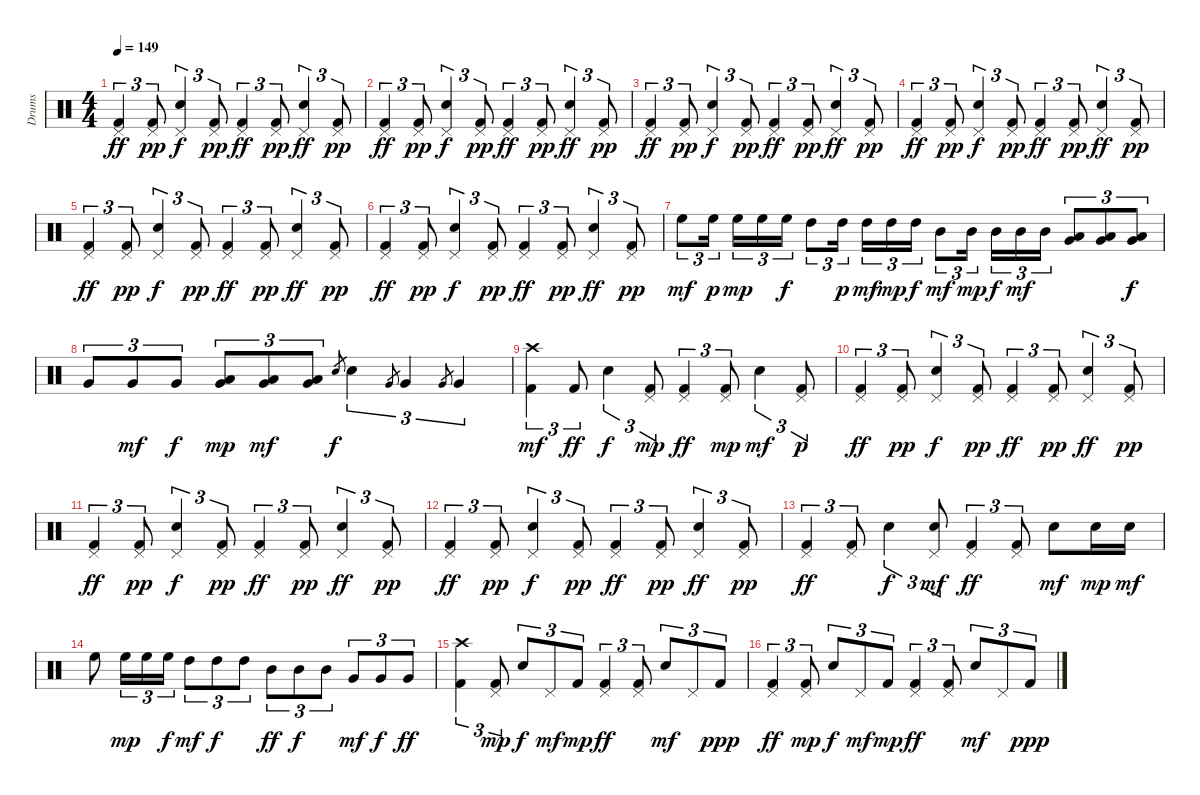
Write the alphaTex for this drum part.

\track ("Drums" "Drums") {instrument percussion}
\staff {score}
\articulation defaults
\ts (4 4)
\tempo 149
\clef neutral
\ks c
("Kick (hit) 2" "Pedal Hi-Hat (hit)").4{tu (3 2) dy ff} ("Kick (hit) 2" "Pedal Hi-Hat (hit)").8{tu (3 2) dy pp} ("Snare (hit) 2" "Pedal Hi-Hat (hit)").4{tu (3 2) dy f} ("Kick (hit) 2" "Pedal Hi-Hat (hit)").8{tu (3 2) dy pp} ("Kick (hit) 2" "Pedal Hi-Hat (hit)").4{tu (3 2) dy ff} ("Kick (hit) 2" "Pedal Hi-Hat (hit)").8{tu (3 2) dy pp} ("Snare (hit) 2" "Pedal Hi-Hat (hit)").4{tu (3 2) dy ff} ("Kick (hit) 2" "Pedal Hi-Hat (hit)").8{tu (3 2) dy pp} |
("Kick (hit) 2" "Pedal Hi-Hat (hit)").4{tu (3 2) dy ff} ("Kick (hit) 2" "Pedal Hi-Hat (hit)").8{tu (3 2) dy pp} ("Snare (hit) 2" "Pedal Hi-Hat (hit)").4{tu (3 2) dy f} ("Kick (hit) 2" "Pedal Hi-Hat (hit)").8{tu (3 2) dy pp} ("Kick (hit) 2" "Pedal Hi-Hat (hit)").4{tu (3 2) dy ff} ("Kick (hit) 2" "Pedal Hi-Hat (hit)").8{tu (3 2) dy pp} ("Snare (hit) 2" "Pedal Hi-Hat (hit)").4{tu (3 2) dy ff} ("Kick (hit) 2" "Pedal Hi-Hat (hit)").8{tu (3 2) dy pp} |
("Kick (hit) 2" "Pedal Hi-Hat (hit)").4{tu (3 2) dy ff} ("Kick (hit) 2" "Pedal Hi-Hat (hit)").8{tu (3 2) dy pp} ("Snare (hit) 2" "Pedal Hi-Hat (hit)").4{tu (3 2) dy f} ("Kick (hit) 2" "Pedal Hi-Hat (hit)").8{tu (3 2) dy pp} ("Kick (hit) 2" "Pedal Hi-Hat (hit)").4{tu (3 2) dy ff} ("Kick (hit) 2" "Pedal Hi-Hat (hit)").8{tu (3 2) dy pp} ("Snare (hit) 2" "Pedal Hi-Hat (hit)").4{tu (3 2) dy ff} ("Kick (hit) 2" "Pedal Hi-Hat (hit)").8{tu (3 2) dy pp} |
("Kick (hit) 2" "Pedal Hi-Hat (hit)").4{tu (3 2) dy ff} ("Kick (hit) 2" "Pedal Hi-Hat (hit)").8{tu (3 2) dy pp} ("Snare (hit) 2" "Pedal Hi-Hat (hit)").4{tu (3 2) dy f} ("Kick (hit) 2" "Pedal Hi-Hat (hit)").8{tu (3 2) dy pp} ("Kick (hit) 2" "Pedal Hi-Hat (hit)").4{tu (3 2) dy ff} ("Kick (hit) 2" "Pedal Hi-Hat (hit)").8{tu (3 2) dy pp} ("Snare (hit) 2" "Pedal Hi-Hat (hit)").4{tu (3 2) dy ff} ("Kick (hit) 2" "Pedal Hi-Hat (hit)").8{tu (3 2) dy pp} |
("Kick (hit) 2" "Pedal Hi-Hat (hit)").4{tu (3 2) dy ff} ("Kick (hit) 2" "Pedal Hi-Hat (hit)").8{tu (3 2) dy pp} ("Snare (hit) 2" "Pedal Hi-Hat (hit)").4{tu (3 2) dy f} ("Kick (hit) 2" "Pedal Hi-Hat (hit)").8{tu (3 2) dy pp} ("Kick (hit) 2" "Pedal Hi-Hat (hit)").4{tu (3 2) dy ff} ("Kick (hit) 2" "Pedal Hi-Hat (hit)").8{tu (3 2) dy pp} ("Snare (hit) 2" "Pedal Hi-Hat (hit)").4{tu (3 2) dy ff} ("Kick (hit) 2" "Pedal Hi-Hat (hit)").8{tu (3 2) dy pp} |
("Kick (hit) 2" "Pedal Hi-Hat (hit)").4{tu (3 2) dy ff} ("Kick (hit) 2" "Pedal Hi-Hat (hit)").8{tu (3 2) dy pp} ("Snare (hit) 2" "Pedal Hi-Hat (hit)").4{tu (3 2) dy f} ("Kick (hit) 2" "Pedal Hi-Hat (hit)").8{tu (3 2) dy pp} ("Kick (hit) 2" "Pedal Hi-Hat (hit)").4{tu (3 2) dy ff} ("Kick (hit) 2" "Pedal Hi-Hat (hit)").8{tu (3 2) dy pp} ("Snare (hit) 2" "Pedal Hi-Hat (hit)").4{tu (3 2) dy ff} ("Kick (hit) 2" "Pedal Hi-Hat (hit)").8{tu (3 2) dy pp} |
"High Floor Tom (hit)".8{tu (3 2) dy mf} "High Floor Tom (hit)".16{tu (3 2) dy p} "High Floor Tom (hit)".16{tu (3 2) dy mp} "High Floor Tom (hit)".16{tu (3 2)} "High Floor Tom (hit)".16{tu (3 2) dy f} "High Tom (hit)".8{tu (3 2)} "High Tom (hit)".16{tu (3 2) dy p} "High Tom (hit)".16{tu (3 2) dy mf} "High Tom (hit)".16{tu (3 2) dy mp} "High Tom (hit)".16{tu (3 2) dy f} "Mid Tom (hit)".8{tu (3 2) dy mf} "Mid Tom (hit)".16{tu (3 2) dy mp} "Mid Tom (hit)".16{tu (3 2) dy f} "Mid Tom (hit)".16{tu (3 2) dy mf} "Mid Tom (hit)".16{tu (3 2)} ("Very Low Tom (hit)" "Low Floor Tom (hit)").8{tu (3 2)} ("Very Low Tom (hit)" "Low Floor Tom (hit)").8{tu (3 2)} ("Very Low Tom (hit)" "Low Floor Tom (hit)").8{tu (3 2) dy f} |
"Very Low Tom (hit)".8{tu (3 2)} "Very Low Tom (hit)".8{tu (3 2) dy mf} "Very Low Tom (hit)".8{tu (3 2) dy f} ("Low Tom (hit)" "Very Low Tom (hit)").8{tu (3 2) dy mp} ("Low Tom (hit)" "Very Low Tom (hit)").8{tu (3 2) dy mf} ("Low Tom (hit)" "Very Low Tom (hit)").8{tu (3 2)} "Snare (hit) 2".8{gr dy f} "Snare (hit) 2".4{tu (3 2)} "Very Low Tom (hit)".8{gr} "Very Low Tom (hit)".4{tu (3 2)} "Very Low Tom (hit)".8{gr} "Very Low Tom (hit)".4{tu (3 2)} |
("Kick (hit) 2" "Crash high (hit)").4{tu (3 2) dy mf} "Kick (hit) 2".8{tu (3 2) dy ff} "Snare (hit) 2".4{tu (3 2) dy f} ("Kick (hit) 2" "Pedal Hi-Hat (hit)").8{tu (3 2) dy mp} ("Kick (hit) 2" "Pedal Hi-Hat (hit)").4{tu (3 2) dy ff} ("Kick (hit) 2" "Pedal Hi-Hat (hit)").8{tu (3 2) dy mp} "Snare (hit) 2".4{tu (3 2) dy mf} ("Kick (hit) 2" "Pedal Hi-Hat (hit)").8{tu (3 2) dy p} |
("Kick (hit) 2" "Pedal Hi-Hat (hit)").4{tu (3 2) dy ff} ("Kick (hit) 2" "Pedal Hi-Hat (hit)").8{tu (3 2) dy pp} ("Snare (hit) 2" "Pedal Hi-Hat (hit)").4{tu (3 2) dy f} ("Kick (hit) 2" "Pedal Hi-Hat (hit)").8{tu (3 2) dy pp} ("Kick (hit) 2" "Pedal Hi-Hat (hit)").4{tu (3 2) dy ff} ("Kick (hit) 2" "Pedal Hi-Hat (hit)").8{tu (3 2) dy pp} ("Snare (hit) 2" "Pedal Hi-Hat (hit)").4{tu (3 2) dy ff} ("Kick (hit) 2" "Pedal Hi-Hat (hit)").8{tu (3 2) dy pp} |
("Kick (hit) 2" "Pedal Hi-Hat (hit)").4{tu (3 2) dy ff} ("Kick (hit) 2" "Pedal Hi-Hat (hit)").8{tu (3 2) dy pp} ("Snare (hit) 2" "Pedal Hi-Hat (hit)").4{tu (3 2) dy f} ("Kick (hit) 2" "Pedal Hi-Hat (hit)").8{tu (3 2) dy pp} ("Kick (hit) 2" "Pedal Hi-Hat (hit)").4{tu (3 2) dy ff} ("Kick (hit) 2" "Pedal Hi-Hat (hit)").8{tu (3 2) dy pp} ("Snare (hit) 2" "Pedal Hi-Hat (hit)").4{tu (3 2) dy ff} ("Kick (hit) 2" "Pedal Hi-Hat (hit)").8{tu (3 2) dy pp} |
("Kick (hit) 2" "Pedal Hi-Hat (hit)").4{tu (3 2) dy ff} ("Kick (hit) 2" "Pedal Hi-Hat (hit)").8{tu (3 2) dy pp} ("Snare (hit) 2" "Pedal Hi-Hat (hit)").4{tu (3 2) dy f} ("Kick (hit) 2" "Pedal Hi-Hat (hit)").8{tu (3 2) dy pp} ("Kick (hit) 2" "Pedal Hi-Hat (hit)").4{tu (3 2) dy ff} ("Kick (hit) 2" "Pedal Hi-Hat (hit)").8{tu (3 2) dy pp} ("Snare (hit) 2" "Pedal Hi-Hat (hit)").4{tu (3 2) dy ff} ("Kick (hit) 2" "Pedal Hi-Hat (hit)").8{tu (3 2) dy pp} |
("Kick (hit) 2" "Pedal Hi-Hat (hit)").4{tu (3 2) dy ff} ("Kick (hit) 2" "Pedal Hi-Hat (hit)").8{tu (3 2)} "Snare (hit) 2".4{tu (3 2) dy f} ("Snare (hit) 2" "Pedal Hi-Hat (hit)").8{tu (3 2) dy mf} ("Kick (hit) 2" "Pedal Hi-Hat (hit)").4{tu (3 2) dy ff} ("Kick (hit) 2" "Pedal Hi-Hat (hit)").8{tu (3 2)} "Snare (hit) 2".8{dy mf} "Snare (hit) 2".16{dy mp} "Snare (hit) 2".16{dy mf} |
"High Floor Tom (hit)".8 "High Floor Tom (hit)".16{tu (3 2) dy mp} "High Floor Tom (hit)".16{tu (3 2)} "High Floor Tom (hit)".16{tu (3 2) dy f} "High Tom (hit)".8{tu (3 2) dy mf} "High Tom (hit)".8{tu (3 2) dy f} "High Tom (hit)".8{tu (3 2)} "Mid Tom (hit)".8{tu (3 2) dy ff} "Mid Tom (hit)".8{tu (3 2) dy f} "Mid Tom (hit)".8{tu (3 2)} "Very Low Tom (hit)".8{tu (3 2) dy mf} "Very Low Tom (hit)".8{tu (3 2) dy f} "Very Low Tom (hit)".8{tu (3 2) dy ff} |
("Kick (hit) 2" "Crash high (hit)").4{tu (3 2)} ("Kick (hit) 2" "Pedal Hi-Hat (hit)").8{tu (3 2) dy mp} "Snare (hit) 2".8{tu (3 2) dy f} "Pedal Hi-Hat (hit)".8{tu (3 2) dy mf} "Kick (hit) 2".8{tu (3 2) dy mp} ("Kick (hit) 2" "Pedal Hi-Hat (hit)").4{tu (3 2) dy ff} ("Kick (hit) 2" "Pedal Hi-Hat (hit)").8{tu (3 2)} "Snare (hit) 2".8{tu (3 2) dy mf} "Pedal Hi-Hat (hit)".8{tu (3 2)} "Kick (hit) 2".8{tu (3 2) dy ppp} |
("Kick (hit) 2" "Pedal Hi-Hat (hit)").4{tu (3 2) dy ff} ("Kick (hit) 2" "Pedal Hi-Hat (hit)").8{tu (3 2) dy mp} "Snare (hit) 2".8{tu (3 2) dy f} "Pedal Hi-Hat (hit)".8{tu (3 2) dy mf} "Kick (hit) 2".8{tu (3 2) dy mp} ("Kick (hit) 2" "Pedal Hi-Hat (hit)").4{tu (3 2) dy ff} ("Kick (hit) 2" "Pedal Hi-Hat (hit)").8{tu (3 2)} "Snare (hit) 2".8{tu (3 2) dy mf} "Pedal Hi-Hat (hit)".8{tu (3 2)} "Kick (hit) 2".8{tu (3 2) dy ppp}
